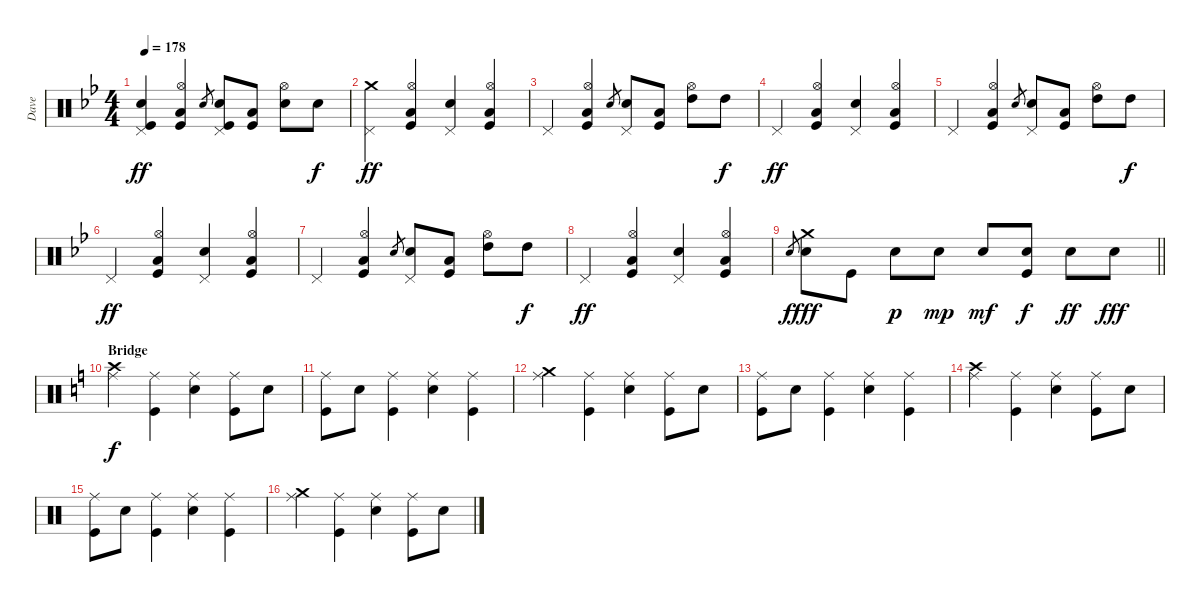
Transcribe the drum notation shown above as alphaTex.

\track ("Dave" "Dave") {instrument percussion}
\staff {score}
\articulation defaults
\ts (4 4)
\tempo 178
\clef neutral
\ks gminor
("Pedal Hi-Hat (hit)" "Snare (hit) 2" "Kick (hit)").4{dy ff} ("Hi-Hat (open)" "Low Floor Tom (hit)" "Kick (hit)").4 "Snare (hit) 2".8{gr} ("Pedal Hi-Hat (hit)" "Snare (hit) 2" "Kick (hit)").8 ("Low Floor Tom (hit)" "Kick (hit)").8 ("Hi-Hat (open)" "Snare (hit) 2").8 "Snare (hit) 2".8{dy f} |
("Crash medium (hit)" "Pedal Hi-Hat (hit)").4{dy ff} ("Hi-Hat (open)" "Low Floor Tom (hit)" "Kick (hit)").4 ("Pedal Hi-Hat (hit)" "Snare (hit) 2").4 ("Hi-Hat (open)" "Low Floor Tom (hit)" "Kick (hit)").4 |
"Pedal Hi-Hat (hit)".4 ("Hi-Hat (open)" "Low Floor Tom (hit)" "Kick (hit)").4 "Snare (hit) 2".8{gr} ("Pedal Hi-Hat (hit)" "Snare (hit) 2").8 ("Low Floor Tom (hit)" "Kick (hit)").8 ("High Tom (hit)" "Hi-Hat (open)").8 "High Tom (hit)".8{dy f} |
"Pedal Hi-Hat (hit)".4{dy ff} ("Hi-Hat (open)" "Low Floor Tom (hit)" "Kick (hit)").4 ("Pedal Hi-Hat (hit)" "Snare (hit) 2").4 ("Hi-Hat (open)" "Low Floor Tom (hit)" "Kick (hit)").4 |
"Pedal Hi-Hat (hit)".4 ("Hi-Hat (open)" "Low Floor Tom (hit)" "Kick (hit)").4 "Snare (hit) 2".8{gr} ("Pedal Hi-Hat (hit)" "Snare (hit) 2").8 ("Low Floor Tom (hit)" "Kick (hit)").8 ("High Tom (hit)" "Hi-Hat (open)").8 "High Tom (hit)".8{dy f} |
"Pedal Hi-Hat (hit)".4{dy ff} ("Hi-Hat (open)" "Low Floor Tom (hit)" "Kick (hit)").4 ("Pedal Hi-Hat (hit)" "Snare (hit) 2").4 ("Hi-Hat (open)" "Low Floor Tom (hit)" "Kick (hit)").4 |
"Pedal Hi-Hat (hit)".4 ("Hi-Hat (open)" "Low Floor Tom (hit)" "Kick (hit)").4 "Snare (hit) 2".8{gr} ("Pedal Hi-Hat (hit)" "Snare (hit) 2").8 ("Low Floor Tom (hit)" "Kick (hit)").8 ("High Tom (hit)" "Hi-Hat (open)").8 "High Tom (hit)".8{dy f} |
"Pedal Hi-Hat (hit)".4{dy ff} ("Hi-Hat (open)" "Low Floor Tom (hit)" "Kick (hit)").4 ("Pedal Hi-Hat (hit)" "Snare (hit) 2").4 ("Hi-Hat (open)" "Low Floor Tom (hit)" "Kick (hit)").4 |
\barLineRight lightlight "Snare (hit) 2".8{gr dy f}
("Crash medium (hit)" "Snare (hit) 2").8{dy fff} "Kick (hit)".8 "Snare (hit) 2".8{dy p} "Snare (hit) 2".8{dy mp} "Snare (hit) 2".8{dy mf} ("Snare (hit) 2" "Kick (hit)").8{dy f} "Snare (hit) 2".8{dy ff} "Snare (hit) 2".8{dy fff} |
\section ("" "Bridge")
\ks c
("Crash high (hit)" "Ride (middle)").4{dy f} ("Ride (middle)" "Kick (hit)").4 ("Ride (middle)" "Snare (hit) 2").4 ("Ride (middle)" "Kick (hit)").8 "Snare (hit) 2".8 |
("Ride (middle)" "Kick (hit)").8 "Snare (hit) 2".8 ("Ride (middle)" "Kick (hit)").4 ("Ride (middle)" "Snare (hit) 2").4 ("Ride (middle)" "Kick (hit)").4 |
("Crash medium (hit)" "Ride (middle)").4 ("Ride (middle)" "Kick (hit)").4 ("Ride (middle)" "Snare (hit) 2").4 ("Ride (middle)" "Kick (hit)").8 "Snare (hit) 2".8 |
("Ride (middle)" "Kick (hit)").8 "Snare (hit) 2".8 ("Ride (middle)" "Kick (hit)").4 ("Ride (middle)" "Snare (hit) 2").4 ("Ride (middle)" "Kick (hit)").4 |
("Crash high (hit)" "Ride (middle)").4 ("Ride (middle)" "Kick (hit)").4 ("Ride (middle)" "Snare (hit) 2").4 ("Ride (middle)" "Kick (hit)").8 "Snare (hit) 2".8 |
("Ride (middle)" "Kick (hit)").8 "Snare (hit) 2".8 ("Ride (middle)" "Kick (hit)").4 ("Ride (middle)" "Snare (hit) 2").4 ("Ride (middle)" "Kick (hit)").4 |
("Crash medium (hit)" "Ride (middle)").4 ("Ride (middle)" "Kick (hit)").4 ("Ride (middle)" "Snare (hit) 2").4 ("Ride (middle)" "Kick (hit)").8 "Snare (hit) 2".8
